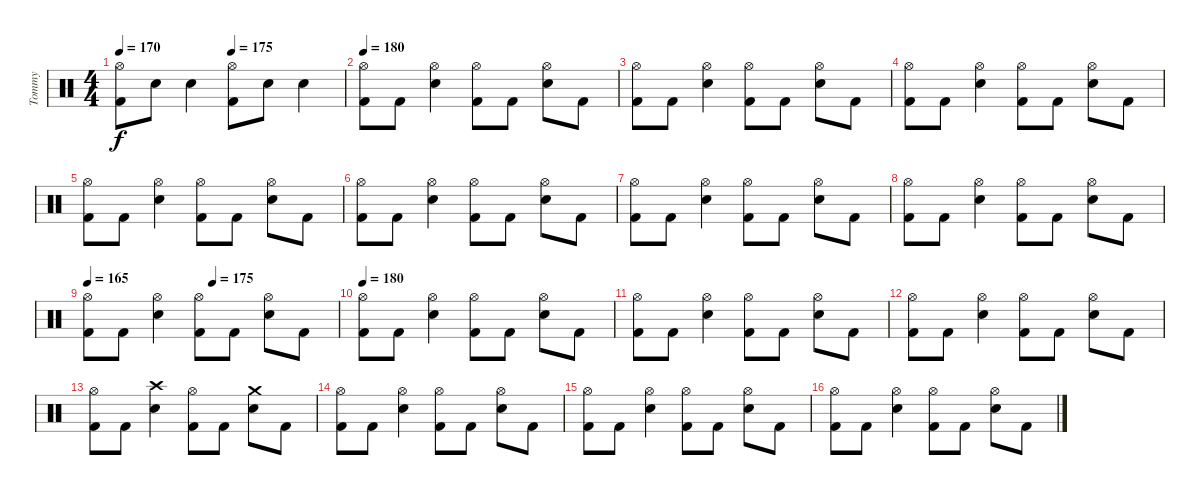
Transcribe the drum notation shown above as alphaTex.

\track ("Tommy" "Tommy") {instrument percussion}
\staff {score}
\articulation defaults
\ts (4 4)
\tempo 170
\tempo (175 0.5)
\clef neutral
\ks c
("Kick (hit) 2" "Hi-Hat (open)").8{dy f} "Snare (hit) 2".8 "Snare (hit) 2".4 ("Kick (hit) 2" "Hi-Hat (open)").8 "Snare (hit) 2".8 "Snare (hit) 2".4 |
\tempo 180
("Kick (hit) 2" "Hi-Hat (open)").8 "Kick (hit) 2".8 ("Snare (hit) 2" "Hi-Hat (open)").4 ("Kick (hit) 2" "Hi-Hat (open)").8 "Kick (hit) 2".8 ("Snare (hit) 2" "Hi-Hat (open)").8 "Kick (hit) 2".8 |
("Kick (hit) 2" "Hi-Hat (open)").8 "Kick (hit) 2".8 ("Snare (hit) 2" "Hi-Hat (open)").4 ("Kick (hit) 2" "Hi-Hat (open)").8 "Kick (hit) 2".8 ("Snare (hit) 2" "Hi-Hat (open)").8 "Kick (hit) 2".8 |
("Kick (hit) 2" "Hi-Hat (open)").8 "Kick (hit) 2".8 ("Snare (hit) 2" "Hi-Hat (open)").4 ("Kick (hit) 2" "Hi-Hat (open)").8 "Kick (hit) 2".8 ("Snare (hit) 2" "Hi-Hat (open)").8 "Kick (hit) 2".8 |
("Kick (hit) 2" "Hi-Hat (open)").8 "Kick (hit) 2".8 ("Snare (hit) 2" "Hi-Hat (open)").4 ("Kick (hit) 2" "Hi-Hat (open)").8 "Kick (hit) 2".8 ("Snare (hit) 2" "Hi-Hat (open)").8 "Kick (hit) 2".8 |
("Kick (hit) 2" "Hi-Hat (open)").8 "Kick (hit) 2".8 ("Snare (hit) 2" "Hi-Hat (open)").4 ("Kick (hit) 2" "Hi-Hat (open)").8 "Kick (hit) 2".8 ("Snare (hit) 2" "Hi-Hat (open)").8 "Kick (hit) 2".8 |
("Kick (hit) 2" "Hi-Hat (open)").8 "Kick (hit) 2".8 ("Snare (hit) 2" "Hi-Hat (open)").4 ("Kick (hit) 2" "Hi-Hat (open)").8 "Kick (hit) 2".8 ("Snare (hit) 2" "Hi-Hat (open)").8 "Kick (hit) 2".8 |
("Kick (hit) 2" "Hi-Hat (open)").8 "Kick (hit) 2".8 ("Snare (hit) 2" "Hi-Hat (open)").4 ("Kick (hit) 2" "Hi-Hat (open)").8 "Kick (hit) 2".8 ("Snare (hit) 2" "Hi-Hat (open)").8 "Kick (hit) 2".8 |
\tempo 165
\tempo (175 0.5)
("Kick (hit) 2" "Hi-Hat (open)").8 "Kick (hit) 2".8 ("Snare (hit) 2" "Hi-Hat (open)").4 ("Kick (hit) 2" "Hi-Hat (open)").8 "Kick (hit) 2".8 ("Snare (hit) 2" "Hi-Hat (open)").8 "Kick (hit) 2".8 |
\tempo 180
("Kick (hit) 2" "Hi-Hat (open)").8 "Kick (hit) 2".8 ("Snare (hit) 2" "Hi-Hat (open)").4 ("Kick (hit) 2" "Hi-Hat (open)").8 "Kick (hit) 2".8 ("Snare (hit) 2" "Hi-Hat (open)").8 "Kick (hit) 2".8 |
("Kick (hit) 2" "Hi-Hat (open)").8 "Kick (hit) 2".8 ("Snare (hit) 2" "Hi-Hat (open)").4 ("Kick (hit) 2" "Hi-Hat (open)").8 "Kick (hit) 2".8 ("Snare (hit) 2" "Hi-Hat (open)").8 "Kick (hit) 2".8 |
("Kick (hit) 2" "Hi-Hat (open)").8 "Kick (hit) 2".8 ("Snare (hit) 2" "Hi-Hat (open)").4 ("Kick (hit) 2" "Hi-Hat (open)").8 "Kick (hit) 2".8 ("Snare (hit) 2" "Hi-Hat (open)").8 "Kick (hit) 2".8 |
("Kick (hit) 2" "Hi-Hat (open)").8 "Kick (hit) 2".8 ("Snare (hit) 2" "Crash high (hit)").4 ("Kick (hit) 2" "Hi-Hat (open)").8 "Kick (hit) 2".8 ("Snare (hit) 2" "Crash medium (hit)").8 "Kick (hit) 2".8 |
("Kick (hit) 2" "Hi-Hat (open)").8 "Kick (hit) 2".8 ("Snare (hit) 2" "Hi-Hat (open)").4 ("Kick (hit) 2" "Hi-Hat (open)").8 "Kick (hit) 2".8 ("Snare (hit) 2" "Hi-Hat (open)").8 "Kick (hit) 2".8 |
("Kick (hit) 2" "Hi-Hat (open)").8 "Kick (hit) 2".8 ("Snare (hit) 2" "Hi-Hat (open)").4 ("Kick (hit) 2" "Hi-Hat (open)").8 "Kick (hit) 2".8 ("Snare (hit) 2" "Hi-Hat (open)").8 "Kick (hit) 2".8 |
("Kick (hit) 2" "Hi-Hat (open)").8 "Kick (hit) 2".8 ("Snare (hit) 2" "Hi-Hat (open)").4 ("Kick (hit) 2" "Hi-Hat (open)").8 "Kick (hit) 2".8 ("Snare (hit) 2" "Hi-Hat (open)").8 "Kick (hit) 2".8
